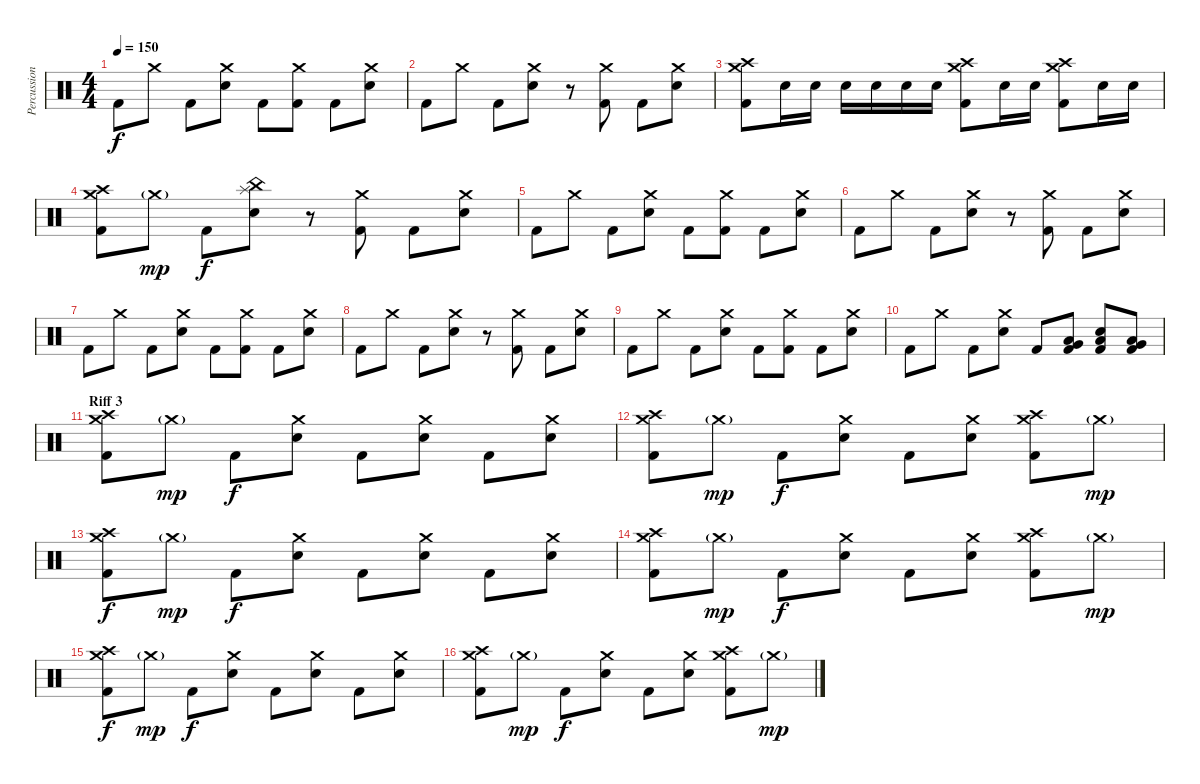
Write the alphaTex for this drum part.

\track ("Percussion" "Percussion") {instrument percussion}
\staff {score}
\articulation defaults
\ts (4 4)
\tempo 150
\clef neutral
\ks c "Kick (hit) 2".8{dy f} "Crash medium (hit)".8 "Kick (hit) 2".8
("Crash medium (hit)" "Electric Snare (hit)").8 "Kick (hit) 2".8 ("Crash medium (hit)" "Kick (hit) 2").8 "Kick (hit) 2".8 ("Crash medium (hit)" "Electric Snare (hit)").8 |
"Kick (hit) 2".8 "Crash medium (hit)".8 "Kick (hit) 2".8 ("Crash medium (hit)" "Electric Snare (hit)").8 r.8 ("Crash medium (hit)" "Kick (hit) 2").8 "Kick (hit) 2".8 ("Crash medium (hit)" "Electric Snare (hit)").8 |
("Crash medium (hit)" "Crash high (hit)" "Kick (hit) 2").8 "Electric Snare (hit)".16 "Electric Snare (hit)".16 "Electric Snare (hit)".16 "Electric Snare (hit)".16 "Electric Snare (hit)".16 "Electric Snare (hit)".16 ("Crash medium (hit)" "Crash high (hit)" "Kick (hit) 2").8 "Electric Snare (hit)".16 "Electric Snare (hit)".16 ("Crash medium (hit)" "Crash high (hit)" "Kick (hit) 2").8 "Electric Snare (hit)".16 "Electric Snare (hit)".16 |
("Crash medium (hit)" "Crash high (hit)" "Kick (hit) 2").8 "Crash medium (hit)"{g}.8{dy mp} "Kick (hit) 2".8{dy f} ("China (hit)" "Splash (hit)" "Electric Snare (hit)").8 r.8 ("Crash medium (hit)" "Kick (hit) 2").8 "Kick (hit) 2".8 ("Crash medium (hit)" "Electric Snare (hit)").8 |
"Kick (hit) 2".8 "Crash medium (hit)".8 "Kick (hit) 2".8 ("Crash medium (hit)" "Electric Snare (hit)").8 "Kick (hit) 2".8 ("Crash medium (hit)" "Kick (hit) 2").8 "Kick (hit) 2".8 ("Crash medium (hit)" "Electric Snare (hit)").8 |
"Kick (hit) 2".8 "Crash medium (hit)".8 "Kick (hit) 2".8 ("Crash medium (hit)" "Electric Snare (hit)").8 r.8 ("Crash medium (hit)" "Kick (hit) 2").8 "Kick (hit) 2".8 ("Crash medium (hit)" "Electric Snare (hit)").8 |
"Kick (hit) 2".8 "Crash medium (hit)".8 "Kick (hit) 2".8 ("Crash medium (hit)" "Electric Snare (hit)").8 "Kick (hit) 2".8 ("Crash medium (hit)" "Kick (hit) 2").8 "Kick (hit) 2".8 ("Crash medium (hit)" "Electric Snare (hit)").8 |
"Kick (hit) 2".8 "Crash medium (hit)".8 "Kick (hit) 2".8 ("Crash medium (hit)" "Electric Snare (hit)").8 r.8 ("Crash medium (hit)" "Kick (hit) 2").8 "Kick (hit) 2".8 ("Crash medium (hit)" "Electric Snare (hit)").8 |
"Kick (hit) 2".8 "Crash medium (hit)".8 "Kick (hit) 2".8 ("Crash medium (hit)" "Electric Snare (hit)").8 "Kick (hit) 2".8 ("Crash medium (hit)" "Kick (hit) 2").8 "Kick (hit) 2".8 ("Crash medium (hit)" "Electric Snare (hit)").8 |
"Kick (hit) 2".8 "Crash medium (hit)".8 "Kick (hit) 2".8 ("Crash medium (hit)" "Electric Snare (hit)").8 "Kick (hit) 2".8 ("Very Low Tom (hit)" "Low Floor Tom (hit)" "Kick (hit) 2").8 ("Electric Snare (hit)" "Low Floor Tom (hit)" "Kick (hit) 2").8 ("Very Low Tom (hit)" "Low Floor Tom (hit)" "Kick (hit) 2").8 |
\section ("" "Riff 3")
("Crash medium (hit)" "Crash high (hit)" "Kick (hit) 2").8 "Crash medium (hit)"{g}.8{dy mp} "Kick (hit) 2".8{dy f} ("Crash medium (hit)" "Electric Snare (hit)").8 "Kick (hit) 2".8 ("Crash medium (hit)" "Electric Snare (hit)").8 "Kick (hit) 2".8 ("Crash medium (hit)" "Electric Snare (hit)").8 |
("Crash medium (hit)" "Crash high (hit)" "Kick (hit) 2").8 "Crash medium (hit)"{g}.8{dy mp} "Kick (hit) 2".8{dy f} ("Crash medium (hit)" "Electric Snare (hit)").8 "Kick (hit) 2".8 ("Crash medium (hit)" "Electric Snare (hit)").8 ("Crash medium (hit)" "Crash high (hit)" "Kick (hit) 2").8 "Crash medium (hit)"{g}.8{dy mp} |
("Crash medium (hit)" "Crash high (hit)" "Kick (hit) 2").8{dy f} "Crash medium (hit)"{g}.8{dy mp} "Kick (hit) 2".8{dy f} ("Crash medium (hit)" "Electric Snare (hit)").8 "Kick (hit) 2".8 ("Crash medium (hit)" "Electric Snare (hit)").8 "Kick (hit) 2".8 ("Crash medium (hit)" "Electric Snare (hit)").8 |
("Crash medium (hit)" "Crash high (hit)" "Kick (hit) 2").8 "Crash medium (hit)"{g}.8{dy mp} "Kick (hit) 2".8{dy f} ("Crash medium (hit)" "Electric Snare (hit)").8 "Kick (hit) 2".8 ("Crash medium (hit)" "Electric Snare (hit)").8 ("Crash medium (hit)" "Crash high (hit)" "Kick (hit) 2").8 "Crash medium (hit)"{g}.8{dy mp} |
("Crash medium (hit)" "Crash high (hit)" "Kick (hit) 2").8{dy f} "Crash medium (hit)"{g}.8{dy mp} "Kick (hit) 2".8{dy f} ("Crash medium (hit)" "Electric Snare (hit)").8 "Kick (hit) 2".8 ("Crash medium (hit)" "Electric Snare (hit)").8 "Kick (hit) 2".8 ("Crash medium (hit)" "Electric Snare (hit)").8 |
("Crash medium (hit)" "Crash high (hit)" "Kick (hit) 2").8 "Crash medium (hit)"{g}.8{dy mp} "Kick (hit) 2".8{dy f} ("Crash medium (hit)" "Electric Snare (hit)").8 "Kick (hit) 2".8 ("Crash medium (hit)" "Electric Snare (hit)").8 ("Crash medium (hit)" "Crash high (hit)" "Kick (hit) 2").8 "Crash medium (hit)"{g}.8{dy mp}
